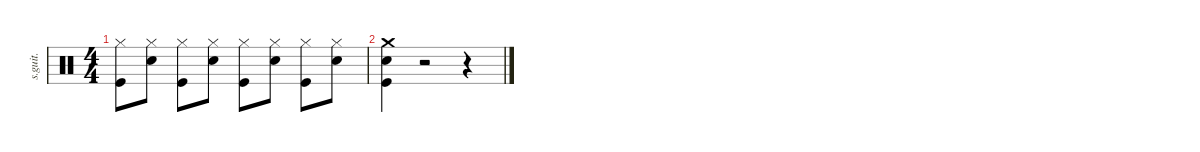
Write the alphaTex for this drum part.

\defaultSystemsLayout 4
\hideDynamics
\bracketExtendMode nobrackets
\track ("batteire(jesus bonehead)" "s.guit.") {instrument percussion}
\staff {score}
\articulation defaults
\ts (4 4)
\tempo (160 hide)
\clef neutral
\ks c
("Hi-Hat (closed)" "Kick (hit)").8{dy f} ("Hi-Hat (closed)" "Snare (hit) 2").8 ("Hi-Hat (closed)" "Kick (hit)").8 ("Hi-Hat (closed)" "Snare (hit) 2").8 ("Hi-Hat (closed)" "Kick (hit)").8 ("Hi-Hat (closed)" "Snare (hit) 2").8 ("Hi-Hat (closed)" "Kick (hit)").8 ("Hi-Hat (closed)" "Snare (hit) 2").8 |
("Crash medium (hit)" "Snare (hit) 2" "Kick (hit)").4 r.2 r.4
